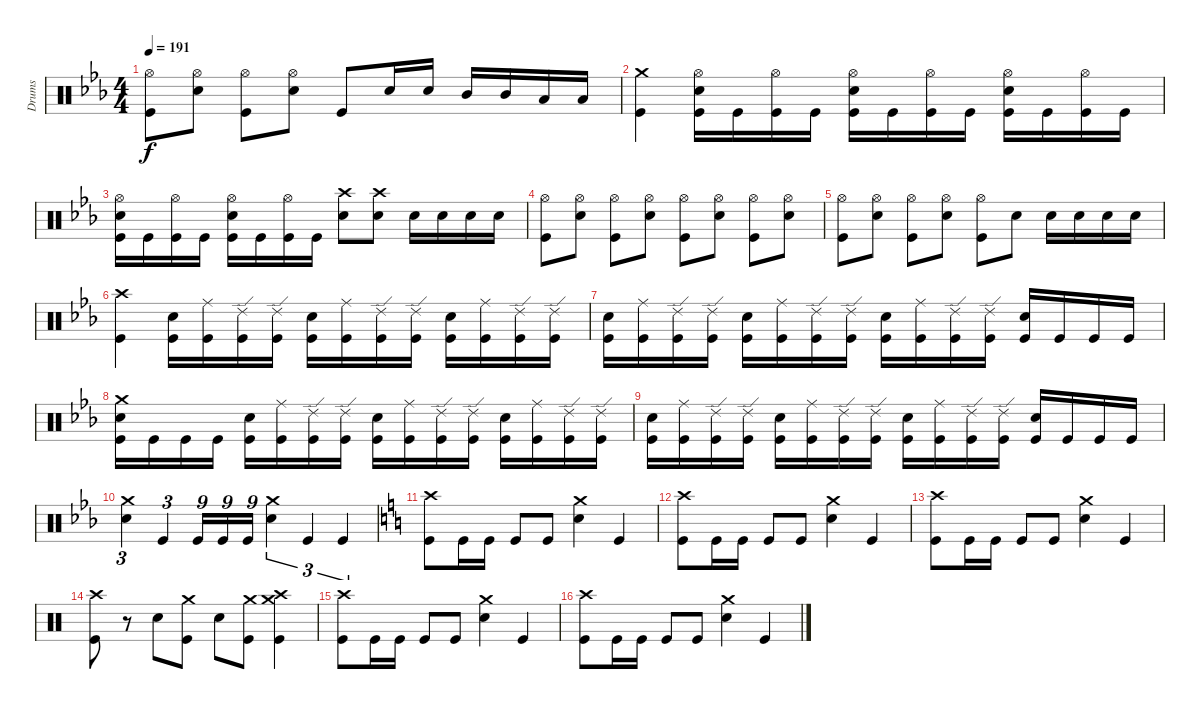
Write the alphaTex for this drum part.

\track ("Drums" "Drums") {instrument percussion}
\staff {score}
\articulation defaults
\ts (4 4)
\tempo 191
\clef neutral
\ks cminor
("Hi-Hat (open)" "Kick (hit)").8{dy f} ("Hi-Hat (open)" "Electric Snare (hit)").8 ("Hi-Hat (open)" "Kick (hit)").8 ("Hi-Hat (open)" "Electric Snare (hit)").8 "Kick (hit)".8 "Electric Snare (hit)".16 "Electric Snare (hit)".16 "Mid Tom (hit)".16 "Mid Tom (hit)".16 "Low Tom (hit)".16 "Low Tom (hit)".16 |
("Crash medium (hit)" "Kick (hit)").4 ("Hi-Hat (open)" "Electric Snare (hit)" "Kick (hit)").16 "Kick (hit)".16 ("Hi-Hat (open)" "Kick (hit)").16 "Kick (hit)".16 ("Hi-Hat (open)" "Electric Snare (hit)" "Kick (hit)").16 "Kick (hit)".16 ("Hi-Hat (open)" "Kick (hit)").16 "Kick (hit)".16 ("Hi-Hat (open)" "Electric Snare (hit)" "Kick (hit)").16 "Kick (hit)".16 ("Hi-Hat (open)" "Kick (hit)").16 "Kick (hit)".16 |
("Hi-Hat (open)" "Electric Snare (hit)" "Kick (hit)").16 "Kick (hit)".16 ("Hi-Hat (open)" "Kick (hit)").16 "Kick (hit)".16 ("Hi-Hat (open)" "Electric Snare (hit)" "Kick (hit)").16 "Kick (hit)".16 ("Hi-Hat (open)" "Kick (hit)").16 "Kick (hit)".16 ("Crash high (hit)" "Electric Snare (hit)").8 ("Crash high (hit)" "Electric Snare (hit)").8 "Electric Snare (hit)".16 "Electric Snare (hit)".16 "Electric Snare (hit)".16 "Electric Snare (hit)".16 |
("Hi-Hat (open)" "Kick (hit)").8 ("Hi-Hat (open)" "Electric Snare (hit)").8 ("Hi-Hat (open)" "Kick (hit)").8 ("Hi-Hat (open)" "Electric Snare (hit)").8 ("Hi-Hat (open)" "Kick (hit)").8 ("Hi-Hat (open)" "Electric Snare (hit)").8 ("Hi-Hat (open)" "Kick (hit)").8 ("Hi-Hat (open)" "Electric Snare (hit)").8 |
("Hi-Hat (open)" "Kick (hit)").8 ("Hi-Hat (open)" "Electric Snare (hit)").8 ("Hi-Hat (open)" "Kick (hit)").8 ("Hi-Hat (open)" "Electric Snare (hit)").8 ("Hi-Hat (open)" "Kick (hit)").8 "Electric Snare (hit)".8 "Electric Snare (hit)".16 "Electric Snare (hit)".16 "Electric Snare (hit)".16 "Electric Snare (hit)".16 |
("Crash high (hit)" "Kick (hit)").4 ("Electric Snare (hit)" "Kick (hit)").16 ("Ride (middle)" "Kick (hit)").16 ("Ride (edge) 2" "Kick (hit)").16 ("Ride (edge) 2" "Kick (hit)").16 ("Electric Snare (hit)" "Kick (hit)").16 ("Ride (middle)" "Kick (hit)").16 ("Ride (edge) 2" "Kick (hit)").16 ("Ride (edge) 2" "Kick (hit)").16 ("Electric Snare (hit)" "Kick (hit)").16 ("Ride (middle)" "Kick (hit)").16 ("Ride (edge) 2" "Kick (hit)").16 ("Ride (edge) 2" "Kick (hit)").16 |
("Electric Snare (hit)" "Kick (hit)").16 ("Ride (middle)" "Kick (hit)").16 ("Ride (edge) 2" "Kick (hit)").16 ("Ride (edge) 2" "Kick (hit)").16 ("Electric Snare (hit)" "Kick (hit)").16 ("Ride (middle)" "Kick (hit)").16 ("Ride (edge) 2" "Kick (hit)").16 ("Ride (edge) 2" "Kick (hit)").16 ("Electric Snare (hit)" "Kick (hit)").16 ("Ride (middle)" "Kick (hit)").16 ("Ride (edge) 2" "Kick (hit)").16 ("Ride (edge) 2" "Kick (hit)").16 ("Electric Snare (hit)" "Kick (hit)").16 "Kick (hit)".16 "Kick (hit)".16 "Kick (hit)".16 |
("Crash medium (hit)" "Electric Snare (hit)" "Kick (hit)").16 "Kick (hit)".16 "Kick (hit)".16 "Kick (hit)".16 ("Electric Snare (hit)" "Kick (hit)").16 ("Ride (middle)" "Kick (hit)").16 ("Ride (edge) 2" "Kick (hit)").16 ("Ride (edge) 2" "Kick (hit)").16 ("Electric Snare (hit)" "Kick (hit)").16 ("Ride (middle)" "Kick (hit)").16 ("Ride (edge) 2" "Kick (hit)").16 ("Ride (edge) 2" "Kick (hit)").16 ("Electric Snare (hit)" "Kick (hit)").16 ("Ride (middle)" "Kick (hit)").16 ("Ride (edge) 2" "Kick (hit)").16 ("Ride (edge) 2" "Kick (hit)").16 |
("Electric Snare (hit)" "Kick (hit)").16 ("Ride (middle)" "Kick (hit)").16 ("Ride (edge) 2" "Kick (hit)").16 ("Ride (edge) 2" "Kick (hit)").16 ("Electric Snare (hit)" "Kick (hit)").16 ("Ride (middle)" "Kick (hit)").16 ("Ride (edge) 2" "Kick (hit)").16 ("Ride (edge) 2" "Kick (hit)").16 ("Electric Snare (hit)" "Kick (hit)").16 ("Ride (middle)" "Kick (hit)").16 ("Ride (edge) 2" "Kick (hit)").16 ("Ride (edge) 2" "Kick (hit)").16 ("Electric Snare (hit)" "Kick (hit)").16 "Kick (hit)".16 "Kick (hit)".16 "Kick (hit)".16 |
("Crash medium (hit)" "Electric Snare (hit)").4{tu (3 2)} "Kick (hit)".4{tu (3 2)} "Kick (hit)".16{tu (9 8)} "Kick (hit)".16{tu (9 8)} "Kick (hit)".16{tu (9 8)} ("Crash medium (hit)" "Electric Snare (hit)").4{tu (3 2)} "Kick (hit)".4{tu (3 2)} "Kick (hit)".4{tu (3 2)} |
\ks c
("Crash high (hit)" "Kick (hit)").8 "Kick (hit)".16 "Kick (hit)".16 "Kick (hit)".8 "Kick (hit)".8 ("Crash medium (hit)" "Electric Snare (hit)").4 "Kick (hit)".4 |
("Crash high (hit)" "Kick (hit)").8 "Kick (hit)".16 "Kick (hit)".16 "Kick (hit)".8 "Kick (hit)".8 ("Crash medium (hit)" "Electric Snare (hit)").4 "Kick (hit)".4 |
("Crash high (hit)" "Kick (hit)").8 "Kick (hit)".16 "Kick (hit)".16 "Kick (hit)".8 "Kick (hit)".8 ("Crash medium (hit)" "Electric Snare (hit)").4 "Kick (hit)".4 |
("Crash high (hit)" "Kick (hit)").8 r.8 "Electric Snare (hit)".8 ("Crash medium (hit)" "Kick (hit)").8 "Electric Snare (hit)".8 ("Crash medium (hit)" "Kick (hit)").8 ("Crash medium (hit)" "Crash high (hit)" "Kick (hit)").4 |
("Crash high (hit)" "Kick (hit)").8 "Kick (hit)".16 "Kick (hit)".16 "Kick (hit)".8 "Kick (hit)".8 ("Crash medium (hit)" "Electric Snare (hit)").4 "Kick (hit)".4 |
("Crash high (hit)" "Kick (hit)").8 "Kick (hit)".16 "Kick (hit)".16 "Kick (hit)".8 "Kick (hit)".8 ("Crash medium (hit)" "Electric Snare (hit)").4 "Kick (hit)".4
